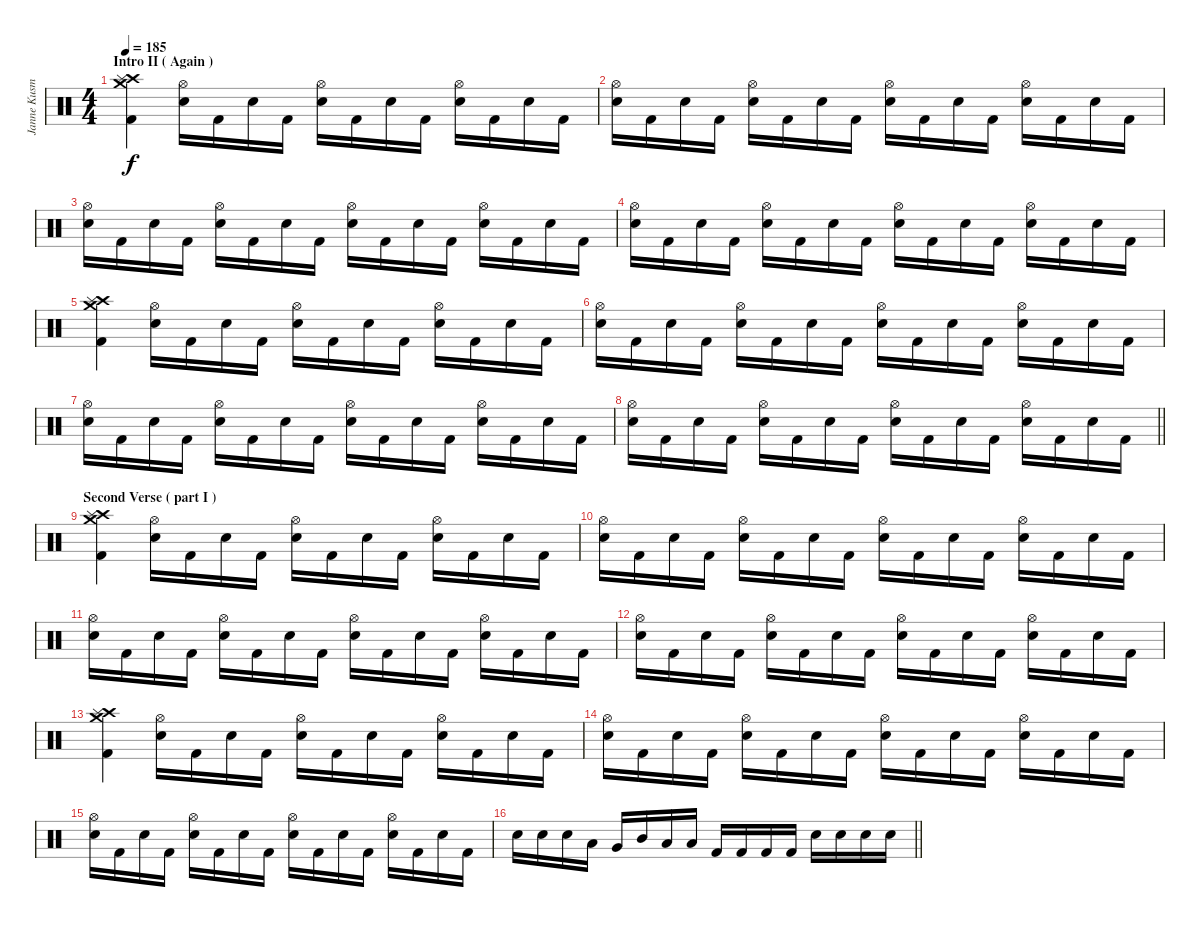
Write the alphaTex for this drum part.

\track ("Janne Kusmin" "Janne Kusm") {instrument percussion}
\staff {score}
\articulation defaults
\ts (4 4)
\section ("" "Intro II ( Again )")
\tempo 185
\clef neutral
\ks c
("Crash medium (hit)" "Crash high (hit)" "Splash (hit)" "Kick (hit) 2").4{dy f} ("Hi-Hat (open)" "Electric Snare (hit)").16 "Kick (hit) 2".16 "Electric Snare (hit)".16 "Kick (hit) 2".16 ("Hi-Hat (open)" "Electric Snare (hit)").16 "Kick (hit) 2".16 "Electric Snare (hit)".16 "Kick (hit) 2".16 ("Hi-Hat (open)" "Electric Snare (hit)").16 "Kick (hit) 2".16 "Electric Snare (hit)".16 "Kick (hit) 2".16 |
("Hi-Hat (open)" "Electric Snare (hit)").16 "Kick (hit) 2".16 "Electric Snare (hit)".16 "Kick (hit) 2".16 ("Hi-Hat (open)" "Electric Snare (hit)").16 "Kick (hit) 2".16 "Electric Snare (hit)".16 "Kick (hit) 2".16 ("Hi-Hat (open)" "Electric Snare (hit)").16 "Kick (hit) 2".16 "Electric Snare (hit)".16 "Kick (hit) 2".16 ("Hi-Hat (open)" "Electric Snare (hit)").16 "Kick (hit) 2".16 "Electric Snare (hit)".16 "Kick (hit) 2".16 |
("Hi-Hat (open)" "Electric Snare (hit)").16 "Kick (hit) 2".16 "Electric Snare (hit)".16 "Kick (hit) 2".16 ("Hi-Hat (open)" "Electric Snare (hit)").16 "Kick (hit) 2".16 "Electric Snare (hit)".16 "Kick (hit) 2".16 ("Hi-Hat (open)" "Electric Snare (hit)").16 "Kick (hit) 2".16 "Electric Snare (hit)".16 "Kick (hit) 2".16 ("Hi-Hat (open)" "Electric Snare (hit)").16 "Kick (hit) 2".16 "Electric Snare (hit)".16 "Kick (hit) 2".16 |
("Hi-Hat (open)" "Electric Snare (hit)").16 "Kick (hit) 2".16 "Electric Snare (hit)".16 "Kick (hit) 2".16 ("Hi-Hat (open)" "Electric Snare (hit)").16 "Kick (hit) 2".16 "Electric Snare (hit)".16 "Kick (hit) 2".16 ("Hi-Hat (open)" "Electric Snare (hit)").16 "Kick (hit) 2".16 "Electric Snare (hit)".16 "Kick (hit) 2".16 ("Hi-Hat (open)" "Electric Snare (hit)").16 "Kick (hit) 2".16 "Electric Snare (hit)".16 "Kick (hit) 2".16 |
("Crash medium (hit)" "Crash high (hit)" "Splash (hit)" "Kick (hit) 2").4 ("Hi-Hat (open)" "Electric Snare (hit)").16 "Kick (hit) 2".16 "Electric Snare (hit)".16 "Kick (hit) 2".16 ("Hi-Hat (open)" "Electric Snare (hit)").16 "Kick (hit) 2".16 "Electric Snare (hit)".16 "Kick (hit) 2".16 ("Hi-Hat (open)" "Electric Snare (hit)").16 "Kick (hit) 2".16 "Electric Snare (hit)".16 "Kick (hit) 2".16 |
("Hi-Hat (open)" "Electric Snare (hit)").16 "Kick (hit) 2".16 "Electric Snare (hit)".16 "Kick (hit) 2".16 ("Hi-Hat (open)" "Electric Snare (hit)").16 "Kick (hit) 2".16 "Electric Snare (hit)".16 "Kick (hit) 2".16 ("Hi-Hat (open)" "Electric Snare (hit)").16 "Kick (hit) 2".16 "Electric Snare (hit)".16 "Kick (hit) 2".16 ("Hi-Hat (open)" "Electric Snare (hit)").16 "Kick (hit) 2".16 "Electric Snare (hit)".16 "Kick (hit) 2".16 |
("Hi-Hat (open)" "Electric Snare (hit)").16 "Kick (hit) 2".16 "Electric Snare (hit)".16 "Kick (hit) 2".16 ("Hi-Hat (open)" "Electric Snare (hit)").16 "Kick (hit) 2".16 "Electric Snare (hit)".16 "Kick (hit) 2".16 ("Hi-Hat (open)" "Electric Snare (hit)").16 "Kick (hit) 2".16 "Electric Snare (hit)".16 "Kick (hit) 2".16 ("Hi-Hat (open)" "Electric Snare (hit)").16 "Kick (hit) 2".16 "Electric Snare (hit)".16 "Kick (hit) 2".16 |
\barLineRight lightlight
("Hi-Hat (open)" "Electric Snare (hit)").16 "Kick (hit) 2".16 "Electric Snare (hit)".16 "Kick (hit) 2".16 ("Hi-Hat (open)" "Electric Snare (hit)").16 "Kick (hit) 2".16 "Electric Snare (hit)".16 "Kick (hit) 2".16 ("Hi-Hat (open)" "Electric Snare (hit)").16 "Kick (hit) 2".16 "Electric Snare (hit)".16 "Kick (hit) 2".16 ("Hi-Hat (open)" "Electric Snare (hit)").16 "Kick (hit) 2".16 "Electric Snare (hit)".16 "Kick (hit) 2".16 |
\section ("" "Second Verse ( part I )")
("Crash medium (hit)" "Crash high (hit)" "Splash (hit)" "Kick (hit) 2").4 ("Hi-Hat (open)" "Electric Snare (hit)").16 "Kick (hit) 2".16 "Electric Snare (hit)".16 "Kick (hit) 2".16 ("Hi-Hat (open)" "Electric Snare (hit)").16 "Kick (hit) 2".16 "Electric Snare (hit)".16 "Kick (hit) 2".16 ("Hi-Hat (open)" "Electric Snare (hit)").16 "Kick (hit) 2".16 "Electric Snare (hit)".16 "Kick (hit) 2".16 |
("Hi-Hat (open)" "Electric Snare (hit)").16 "Kick (hit) 2".16 "Electric Snare (hit)".16 "Kick (hit) 2".16 ("Hi-Hat (open)" "Electric Snare (hit)").16 "Kick (hit) 2".16 "Electric Snare (hit)".16 "Kick (hit) 2".16 ("Hi-Hat (open)" "Electric Snare (hit)").16 "Kick (hit) 2".16 "Electric Snare (hit)".16 "Kick (hit) 2".16 ("Hi-Hat (open)" "Electric Snare (hit)").16 "Kick (hit) 2".16 "Electric Snare (hit)".16 "Kick (hit) 2".16 |
("Hi-Hat (open)" "Electric Snare (hit)").16 "Kick (hit) 2".16 "Electric Snare (hit)".16 "Kick (hit) 2".16 ("Hi-Hat (open)" "Electric Snare (hit)").16 "Kick (hit) 2".16 "Electric Snare (hit)".16 "Kick (hit) 2".16 ("Hi-Hat (open)" "Electric Snare (hit)").16 "Kick (hit) 2".16 "Electric Snare (hit)".16 "Kick (hit) 2".16 ("Hi-Hat (open)" "Electric Snare (hit)").16 "Kick (hit) 2".16 "Electric Snare (hit)".16 "Kick (hit) 2".16 |
("Hi-Hat (open)" "Electric Snare (hit)").16 "Kick (hit) 2".16 "Electric Snare (hit)".16 "Kick (hit) 2".16 ("Hi-Hat (open)" "Electric Snare (hit)").16 "Kick (hit) 2".16 "Electric Snare (hit)".16 "Kick (hit) 2".16 ("Hi-Hat (open)" "Electric Snare (hit)").16 "Kick (hit) 2".16 "Electric Snare (hit)".16 "Kick (hit) 2".16 ("Hi-Hat (open)" "Electric Snare (hit)").16 "Kick (hit) 2".16 "Electric Snare (hit)".16 "Kick (hit) 2".16 |
("Crash medium (hit)" "Crash high (hit)" "Splash (hit)" "Kick (hit) 2").4 ("Hi-Hat (open)" "Electric Snare (hit)").16 "Kick (hit) 2".16 "Electric Snare (hit)".16 "Kick (hit) 2".16 ("Hi-Hat (open)" "Electric Snare (hit)").16 "Kick (hit) 2".16 "Electric Snare (hit)".16 "Kick (hit) 2".16 ("Hi-Hat (open)" "Electric Snare (hit)").16 "Kick (hit) 2".16 "Electric Snare (hit)".16 "Kick (hit) 2".16 |
("Hi-Hat (open)" "Electric Snare (hit)").16 "Kick (hit) 2".16 "Electric Snare (hit)".16 "Kick (hit) 2".16 ("Hi-Hat (open)" "Electric Snare (hit)").16 "Kick (hit) 2".16 "Electric Snare (hit)".16 "Kick (hit) 2".16 ("Hi-Hat (open)" "Electric Snare (hit)").16 "Kick (hit) 2".16 "Electric Snare (hit)".16 "Kick (hit) 2".16 ("Hi-Hat (open)" "Electric Snare (hit)").16 "Kick (hit) 2".16 "Electric Snare (hit)".16 "Kick (hit) 2".16 |
("Hi-Hat (open)" "Electric Snare (hit)").16 "Kick (hit) 2".16 "Electric Snare (hit)".16 "Kick (hit) 2".16 ("Hi-Hat (open)" "Electric Snare (hit)").16 "Kick (hit) 2".16 "Electric Snare (hit)".16 "Kick (hit) 2".16 ("Hi-Hat (open)" "Electric Snare (hit)").16 "Kick (hit) 2".16 "Electric Snare (hit)".16 "Kick (hit) 2".16 ("Hi-Hat (open)" "Electric Snare (hit)").16 "Kick (hit) 2".16 "Electric Snare (hit)".16 "Kick (hit) 2".16 |
\barLineRight lightlight "Electric Snare (hit)".16 "Electric Snare (hit)".16 "Electric Snare (hit)".16 "Low Tom (hit)".16 "Very Low Tom (hit)".16 "Mid Tom (hit)".16 "Low Tom (hit)".16 "Low Floor Tom (hit)".16 "Kick (hit) 2".16 "Kick (hit) 2".16 "Kick (hit) 2".16 "Kick (hit) 2".16 "Electric Snare (hit)".16 "Electric Snare (hit)".16 "Electric Snare (hit)".16 "Electric Snare (hit)".16
